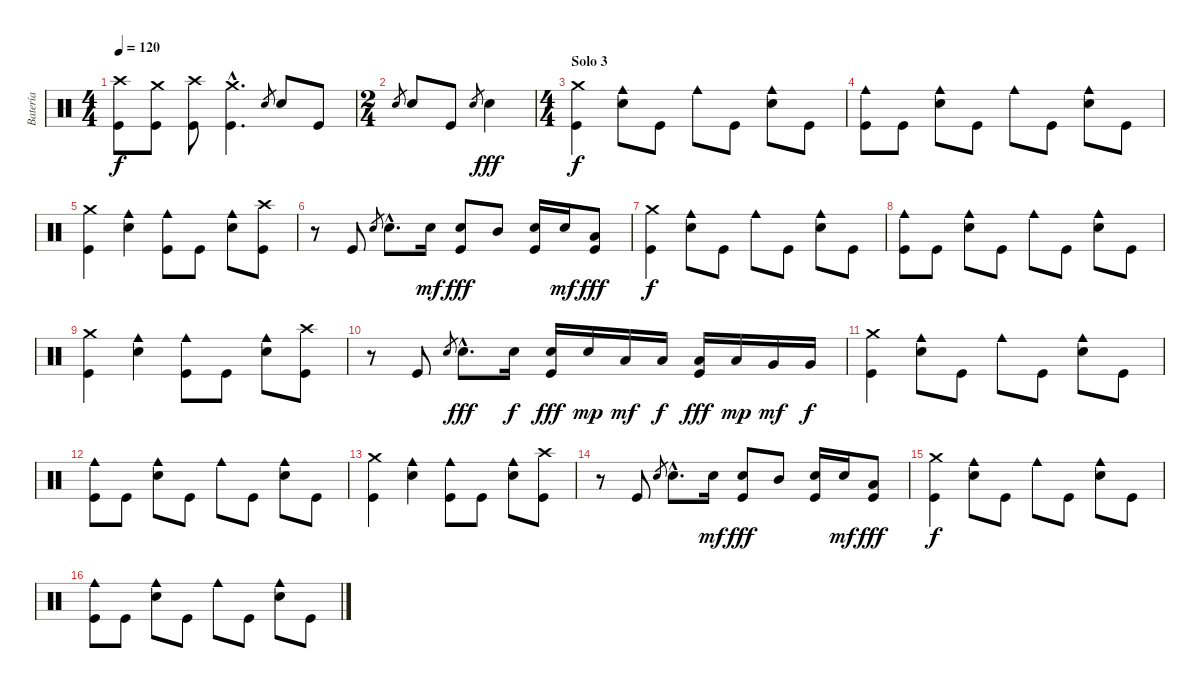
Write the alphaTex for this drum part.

\track ("Batería" "Batería") {instrument percussion}
\staff {score}
\articulation defaults
\ts (4 4)
\tempo 120
\clef neutral
\ks c
("Kick (hit)" "Crash high (hit)").8{dy f} ("Kick (hit)" "Crash medium (hit)").8 ("Kick (hit)" "Crash high (hit)").8 ("Kick (hit)"{hac} "Crash medium (hit)"{hac}).4{d} "Electric Snare (hit)".8{gr} "Electric Snare (hit)".8 "Kick (hit)".8 |
\ts (2 4)
"Electric Snare (hit)".8{gr} "Electric Snare (hit)".8 "Kick (hit)".8 "Electric Snare (hit)".8{gr} "Electric Snare (hit)".4{dy fff} |
\ts (4 4)
\section ("" "Solo 3")
("Kick (hit)" "Crash medium (hit)").4{dy f} ("Electric Snare (hit)" "Cowbell medium (hit)").8 "Kick (hit)".8 "Cowbell medium (hit)".8 "Kick (hit)".8 ("Electric Snare (hit)" "Cowbell medium (hit)").8 "Kick (hit)".8 |
("Kick (hit)" "Cowbell medium (hit)").8 "Kick (hit)".8 ("Electric Snare (hit)" "Cowbell medium (hit)").8 "Kick (hit)".8 "Cowbell medium (hit)".8 "Kick (hit)".8 ("Electric Snare (hit)" "Cowbell medium (hit)").8 "Kick (hit)".8 |
("Kick (hit)" "Crash medium (hit)").4 ("Electric Snare (hit)" "Cowbell medium (hit)").4 ("Kick (hit)" "Cowbell medium (hit)").8 "Kick (hit)".8 ("Electric Snare (hit)" "Cowbell medium (hit)").8 ("Kick (hit)" "Crash high (hit)").8 |
r.8 "Kick (hit)".8 "Electric Snare (hit)".8{gr} "Electric Snare (hit)"{hac}.8{d} "Electric Snare (hit)".16{dy mf} ("Kick (hit)" "Electric Snare (hit)").8{dy fff} "Mid Tom (hit)".8 ("Kick (hit)" "Electric Snare (hit)").16 "Electric Snare (hit)".16{dy mf} ("Kick (hit)" "Low Tom (hit)").8{dy fff} |
("Kick (hit)" "Crash medium (hit)").4{dy f} ("Electric Snare (hit)" "Cowbell medium (hit)").8 "Kick (hit)".8 "Cowbell medium (hit)".8 "Kick (hit)".8 ("Electric Snare (hit)" "Cowbell medium (hit)").8 "Kick (hit)".8 |
("Kick (hit)" "Cowbell medium (hit)").8 "Kick (hit)".8 ("Electric Snare (hit)" "Cowbell medium (hit)").8 "Kick (hit)".8 "Cowbell medium (hit)".8 "Kick (hit)".8 ("Electric Snare (hit)" "Cowbell medium (hit)").8 "Kick (hit)".8 |
("Kick (hit)" "Crash medium (hit)").4 ("Electric Snare (hit)" "Cowbell medium (hit)").4 ("Kick (hit)" "Cowbell medium (hit)").8 "Kick (hit)".8 ("Electric Snare (hit)" "Cowbell medium (hit)").8 ("Kick (hit)" "Crash high (hit)").8 |
r.8 "Kick (hit)".8 "Electric Snare (hit)".8{gr} "Electric Snare (hit)"{hac}.8{d dy fff} "Electric Snare (hit)".16{dy f} ("Kick (hit)" "Electric Snare (hit)").16{dy fff} "Electric Snare (hit)".16{dy mp} "Low Tom (hit)".16{dy mf} "Low Tom (hit)".16{dy f} ("Kick (hit)" "Low Tom (hit)").16{dy fff} "Low Tom (hit)".16{dy mp} "Very Low Tom (hit)".16{dy mf} "Very Low Tom (hit)".16{dy f} |
("Kick (hit)" "Crash medium (hit)").4 ("Electric Snare (hit)" "Cowbell medium (hit)").8 "Kick (hit)".8 "Cowbell medium (hit)".8 "Kick (hit)".8 ("Electric Snare (hit)" "Cowbell medium (hit)").8 "Kick (hit)".8 |
("Kick (hit)" "Cowbell medium (hit)").8 "Kick (hit)".8 ("Electric Snare (hit)" "Cowbell medium (hit)").8 "Kick (hit)".8 "Cowbell medium (hit)".8 "Kick (hit)".8 ("Electric Snare (hit)" "Cowbell medium (hit)").8 "Kick (hit)".8 |
("Kick (hit)" "Crash medium (hit)").4 ("Electric Snare (hit)" "Cowbell medium (hit)").4 ("Kick (hit)" "Cowbell medium (hit)").8 "Kick (hit)".8 ("Electric Snare (hit)" "Cowbell medium (hit)").8 ("Kick (hit)" "Crash high (hit)").8 |
r.8 "Kick (hit)".8 "Electric Snare (hit)".8{gr} "Electric Snare (hit)"{hac}.8{d} "Electric Snare (hit)".16{dy mf} ("Kick (hit)" "Electric Snare (hit)").8{dy fff} "Mid Tom (hit)".8 ("Kick (hit)" "Electric Snare (hit)").16 "Electric Snare (hit)".16{dy mf} ("Kick (hit)" "Low Tom (hit)").8{dy fff} |
("Kick (hit)" "Crash medium (hit)").4{dy f} ("Electric Snare (hit)" "Cowbell medium (hit)").8 "Kick (hit)".8 "Cowbell medium (hit)".8 "Kick (hit)".8 ("Electric Snare (hit)" "Cowbell medium (hit)").8 "Kick (hit)".8 |
("Kick (hit)" "Cowbell medium (hit)").8 "Kick (hit)".8 ("Electric Snare (hit)" "Cowbell medium (hit)").8 "Kick (hit)".8 "Cowbell medium (hit)".8 "Kick (hit)".8 ("Electric Snare (hit)" "Cowbell medium (hit)").8 "Kick (hit)".8
